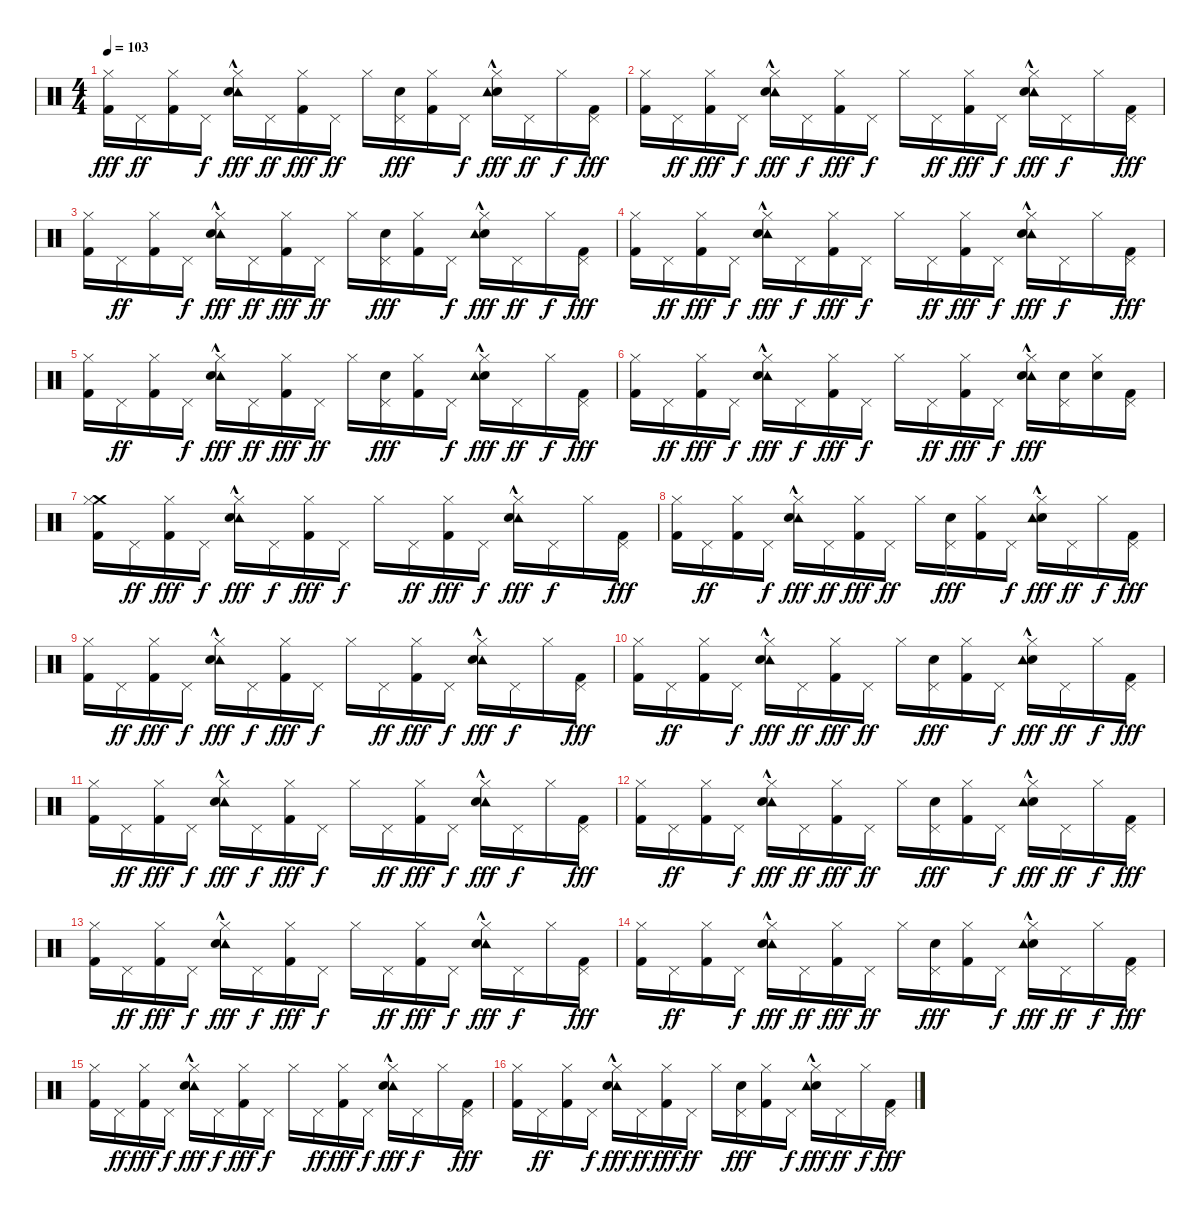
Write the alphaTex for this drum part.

\track "" {instrument percussion}
\staff {score}
\articulation defaults
\ts (4 4)
\tempo 103
\clef neutral
\ks c
("Kick (hit) 2" "Hi-Hat (closed)").16{dy fff} "Pedal Hi-Hat (hit)".16{dy ff} ("Kick (hit) 2" "Hi-Hat (closed)").16 "Pedal Hi-Hat (hit)".16{dy f} ("Tambourine (hit)"{hac} "Hi-Hat (closed)" "Electric Snare (hit)").16{dy fff} "Pedal Hi-Hat (hit)".16{dy ff} ("Hi-Hat (closed)" "Kick (hit) 2").16{dy fff} "Pedal Hi-Hat (hit)".16{dy ff} "Hi-Hat (closed)".16 ("Pedal Hi-Hat (hit)" "Electric Snare (hit)").16{dy fff} ("Kick (hit) 2" "Hi-Hat (closed)").16 "Pedal Hi-Hat (hit)".16{dy f} ("Electric Snare (hit)" "Hi-Hat (closed)" "Tambourine (hit)"{hac}).16{dy fff} "Pedal Hi-Hat (hit)".16{dy ff} "Hi-Hat (closed)".16{dy f} ("Pedal Hi-Hat (hit)" "Kick (hit) 2").16{dy fff} |
("Hi-Hat (closed)" "Kick (hit) 2").16 "Pedal Hi-Hat (hit)".16{dy ff} ("Hi-Hat (closed)" "Kick (hit) 2").16{dy fff} "Pedal Hi-Hat (hit)".16{dy f} ("Tambourine (hit)"{hac} "Hi-Hat (closed)" "Electric Snare (hit)").16{dy fff} "Pedal Hi-Hat (hit)".16{dy f} ("Kick (hit) 2" "Hi-Hat (closed)").16{dy fff} "Pedal Hi-Hat (hit)".16{dy f} "Hi-Hat (closed)".16 "Pedal Hi-Hat (hit)".16{dy ff} ("Kick (hit) 2" "Hi-Hat (closed)").16{dy fff} "Pedal Hi-Hat (hit)".16{dy f} ("Tambourine (hit)"{hac} "Electric Snare (hit)" "Hi-Hat (closed)").16{dy fff} "Pedal Hi-Hat (hit)".16{dy f} "Hi-Hat (closed)".16 ("Kick (hit) 2" "Pedal Hi-Hat (hit)").16{dy fff} |
("Kick (hit) 2" "Hi-Hat (closed)").16 "Pedal Hi-Hat (hit)".16{dy ff} ("Kick (hit) 2" "Hi-Hat (closed)").16 "Pedal Hi-Hat (hit)".16{dy f} ("Tambourine (hit)"{hac} "Hi-Hat (closed)" "Electric Snare (hit)").16{dy fff} "Pedal Hi-Hat (hit)".16{dy ff} ("Hi-Hat (closed)" "Kick (hit) 2").16{dy fff} "Pedal Hi-Hat (hit)".16{dy ff} "Hi-Hat (closed)".16 ("Pedal Hi-Hat (hit)" "Electric Snare (hit)").16{dy fff} ("Kick (hit) 2" "Hi-Hat (closed)").16 "Pedal Hi-Hat (hit)".16{dy f} ("Electric Snare (hit)" "Hi-Hat (closed)" "Tambourine (hit)"{hac}).16{dy fff} "Pedal Hi-Hat (hit)".16{dy ff} "Hi-Hat (closed)".16{dy f} ("Pedal Hi-Hat (hit)" "Kick (hit) 2").16{dy fff} |
("Hi-Hat (closed)" "Kick (hit) 2").16 "Pedal Hi-Hat (hit)".16{dy ff} ("Hi-Hat (closed)" "Kick (hit) 2").16{dy fff} "Pedal Hi-Hat (hit)".16{dy f} ("Tambourine (hit)"{hac} "Hi-Hat (closed)" "Electric Snare (hit)").16{dy fff} "Pedal Hi-Hat (hit)".16{dy f} ("Kick (hit) 2" "Hi-Hat (closed)").16{dy fff} "Pedal Hi-Hat (hit)".16{dy f} "Hi-Hat (closed)".16 "Pedal Hi-Hat (hit)".16{dy ff} ("Kick (hit) 2" "Hi-Hat (closed)").16{dy fff} "Pedal Hi-Hat (hit)".16{dy f} ("Tambourine (hit)"{hac} "Electric Snare (hit)" "Hi-Hat (closed)").16{dy fff} "Pedal Hi-Hat (hit)".16{dy f} "Hi-Hat (closed)".16 ("Kick (hit) 2" "Pedal Hi-Hat (hit)").16{dy fff} |
("Kick (hit) 2" "Hi-Hat (closed)").16 "Pedal Hi-Hat (hit)".16{dy ff} ("Kick (hit) 2" "Hi-Hat (closed)").16 "Pedal Hi-Hat (hit)".16{dy f} ("Tambourine (hit)"{hac} "Hi-Hat (closed)" "Electric Snare (hit)").16{dy fff} "Pedal Hi-Hat (hit)".16{dy ff} ("Hi-Hat (closed)" "Kick (hit) 2").16{dy fff} "Pedal Hi-Hat (hit)".16{dy ff} "Hi-Hat (closed)".16 ("Pedal Hi-Hat (hit)" "Electric Snare (hit)").16{dy fff} ("Kick (hit) 2" "Hi-Hat (closed)").16 "Pedal Hi-Hat (hit)".16{dy f} ("Electric Snare (hit)" "Hi-Hat (closed)" "Tambourine (hit)"{hac}).16{dy fff} "Pedal Hi-Hat (hit)".16{dy ff} "Hi-Hat (closed)".16{dy f} ("Pedal Hi-Hat (hit)" "Kick (hit) 2").16{dy fff} |
("Hi-Hat (closed)" "Kick (hit) 2").16 "Pedal Hi-Hat (hit)".16{dy ff} ("Hi-Hat (closed)" "Kick (hit) 2").16{dy fff} "Pedal Hi-Hat (hit)".16{dy f} ("Tambourine (hit)"{hac} "Hi-Hat (closed)" "Electric Snare (hit)").16{dy fff} "Pedal Hi-Hat (hit)".16{dy f} ("Kick (hit) 2" "Hi-Hat (closed)").16{dy fff} "Pedal Hi-Hat (hit)".16{dy f} "Hi-Hat (closed)".16 "Pedal Hi-Hat (hit)".16{dy ff} ("Kick (hit) 2" "Hi-Hat (closed)").16{dy fff} "Pedal Hi-Hat (hit)".16{dy f} ("Tambourine (hit)"{hac} "Electric Snare (hit)" "Hi-Hat (closed)").16{dy fff} ("Pedal Hi-Hat (hit)" "Electric Snare (hit)").16 ("Hi-Hat (closed)" "Electric Snare (hit)").16 ("Kick (hit) 2" "Pedal Hi-Hat (hit)").16 |
("Crash medium (hit)" "Hi-Hat (closed)" "Kick (hit) 2").16 "Pedal Hi-Hat (hit)".16{dy ff} ("Hi-Hat (closed)" "Kick (hit) 2").16{dy fff} "Pedal Hi-Hat (hit)".16{dy f} ("Tambourine (hit)"{hac} "Hi-Hat (closed)" "Electric Snare (hit)").16{dy fff} "Pedal Hi-Hat (hit)".16{dy f} ("Kick (hit) 2" "Hi-Hat (closed)").16{dy fff} "Pedal Hi-Hat (hit)".16{dy f} "Hi-Hat (closed)".16 "Pedal Hi-Hat (hit)".16{dy ff} ("Kick (hit) 2" "Hi-Hat (closed)").16{dy fff} "Pedal Hi-Hat (hit)".16{dy f} ("Tambourine (hit)"{hac} "Electric Snare (hit)" "Hi-Hat (closed)").16{dy fff} "Pedal Hi-Hat (hit)".16{dy f} "Hi-Hat (closed)".16 ("Kick (hit) 2" "Pedal Hi-Hat (hit)").16{dy fff} |
("Kick (hit) 2" "Hi-Hat (closed)").16 "Pedal Hi-Hat (hit)".16{dy ff} ("Kick (hit) 2" "Hi-Hat (closed)").16 "Pedal Hi-Hat (hit)".16{dy f} ("Tambourine (hit)"{hac} "Hi-Hat (closed)" "Electric Snare (hit)").16{dy fff} "Pedal Hi-Hat (hit)".16{dy ff} ("Hi-Hat (closed)" "Kick (hit) 2").16{dy fff} "Pedal Hi-Hat (hit)".16{dy ff} "Hi-Hat (closed)".16 ("Pedal Hi-Hat (hit)" "Electric Snare (hit)").16{dy fff} ("Kick (hit) 2" "Hi-Hat (closed)").16 "Pedal Hi-Hat (hit)".16{dy f} ("Electric Snare (hit)" "Hi-Hat (closed)" "Tambourine (hit)"{hac}).16{dy fff} "Pedal Hi-Hat (hit)".16{dy ff} "Hi-Hat (closed)".16{dy f} ("Pedal Hi-Hat (hit)" "Kick (hit) 2").16{dy fff} |
("Hi-Hat (closed)" "Kick (hit) 2").16 "Pedal Hi-Hat (hit)".16{dy ff} ("Hi-Hat (closed)" "Kick (hit) 2").16{dy fff} "Pedal Hi-Hat (hit)".16{dy f} ("Tambourine (hit)"{hac} "Hi-Hat (closed)" "Electric Snare (hit)").16{dy fff} "Pedal Hi-Hat (hit)".16{dy f} ("Kick (hit) 2" "Hi-Hat (closed)").16{dy fff} "Pedal Hi-Hat (hit)".16{dy f} "Hi-Hat (closed)".16 "Pedal Hi-Hat (hit)".16{dy ff} ("Kick (hit) 2" "Hi-Hat (closed)").16{dy fff} "Pedal Hi-Hat (hit)".16{dy f} ("Tambourine (hit)"{hac} "Electric Snare (hit)" "Hi-Hat (closed)").16{dy fff} "Pedal Hi-Hat (hit)".16{dy f} "Hi-Hat (closed)".16 ("Kick (hit) 2" "Pedal Hi-Hat (hit)").16{dy fff} |
("Kick (hit) 2" "Hi-Hat (closed)").16 "Pedal Hi-Hat (hit)".16{dy ff} ("Kick (hit) 2" "Hi-Hat (closed)").16 "Pedal Hi-Hat (hit)".16{dy f} ("Tambourine (hit)"{hac} "Hi-Hat (closed)" "Electric Snare (hit)").16{dy fff} "Pedal Hi-Hat (hit)".16{dy ff} ("Hi-Hat (closed)" "Kick (hit) 2").16{dy fff} "Pedal Hi-Hat (hit)".16{dy ff} "Hi-Hat (closed)".16 ("Pedal Hi-Hat (hit)" "Electric Snare (hit)").16{dy fff} ("Kick (hit) 2" "Hi-Hat (closed)").16 "Pedal Hi-Hat (hit)".16{dy f} ("Electric Snare (hit)" "Hi-Hat (closed)" "Tambourine (hit)"{hac}).16{dy fff} "Pedal Hi-Hat (hit)".16{dy ff} "Hi-Hat (closed)".16{dy f} ("Pedal Hi-Hat (hit)" "Kick (hit) 2").16{dy fff} |
("Hi-Hat (closed)" "Kick (hit) 2").16 "Pedal Hi-Hat (hit)".16{dy ff} ("Hi-Hat (closed)" "Kick (hit) 2").16{dy fff} "Pedal Hi-Hat (hit)".16{dy f} ("Tambourine (hit)"{hac} "Hi-Hat (closed)" "Electric Snare (hit)").16{dy fff} "Pedal Hi-Hat (hit)".16{dy f} ("Kick (hit) 2" "Hi-Hat (closed)").16{dy fff} "Pedal Hi-Hat (hit)".16{dy f} "Hi-Hat (closed)".16 "Pedal Hi-Hat (hit)".16{dy ff} ("Kick (hit) 2" "Hi-Hat (closed)").16{dy fff} "Pedal Hi-Hat (hit)".16{dy f} ("Tambourine (hit)"{hac} "Electric Snare (hit)" "Hi-Hat (closed)").16{dy fff} "Pedal Hi-Hat (hit)".16{dy f} "Hi-Hat (closed)".16 ("Kick (hit) 2" "Pedal Hi-Hat (hit)").16{dy fff} |
("Kick (hit) 2" "Hi-Hat (closed)").16 "Pedal Hi-Hat (hit)".16{dy ff} ("Kick (hit) 2" "Hi-Hat (closed)").16 "Pedal Hi-Hat (hit)".16{dy f} ("Tambourine (hit)"{hac} "Hi-Hat (closed)" "Electric Snare (hit)").16{dy fff} "Pedal Hi-Hat (hit)".16{dy ff} ("Hi-Hat (closed)" "Kick (hit) 2").16{dy fff} "Pedal Hi-Hat (hit)".16{dy ff} "Hi-Hat (closed)".16 ("Pedal Hi-Hat (hit)" "Electric Snare (hit)").16{dy fff} ("Kick (hit) 2" "Hi-Hat (closed)").16 "Pedal Hi-Hat (hit)".16{dy f} ("Electric Snare (hit)" "Hi-Hat (closed)" "Tambourine (hit)"{hac}).16{dy fff} "Pedal Hi-Hat (hit)".16{dy ff} "Hi-Hat (closed)".16{dy f} ("Pedal Hi-Hat (hit)" "Kick (hit) 2").16{dy fff} |
("Hi-Hat (closed)" "Kick (hit) 2").16 "Pedal Hi-Hat (hit)".16{dy ff} ("Hi-Hat (closed)" "Kick (hit) 2").16{dy fff} "Pedal Hi-Hat (hit)".16{dy f} ("Tambourine (hit)"{hac} "Hi-Hat (closed)" "Electric Snare (hit)").16{dy fff} "Pedal Hi-Hat (hit)".16{dy f} ("Kick (hit) 2" "Hi-Hat (closed)").16{dy fff} "Pedal Hi-Hat (hit)".16{dy f} "Hi-Hat (closed)".16 "Pedal Hi-Hat (hit)".16{dy ff} ("Kick (hit) 2" "Hi-Hat (closed)").16{dy fff} "Pedal Hi-Hat (hit)".16{dy f} ("Tambourine (hit)"{hac} "Electric Snare (hit)" "Hi-Hat (closed)").16{dy fff} "Pedal Hi-Hat (hit)".16{dy f} "Hi-Hat (closed)".16 ("Kick (hit) 2" "Pedal Hi-Hat (hit)").16{dy fff} |
("Kick (hit) 2" "Hi-Hat (closed)").16 "Pedal Hi-Hat (hit)".16{dy ff} ("Kick (hit) 2" "Hi-Hat (closed)").16 "Pedal Hi-Hat (hit)".16{dy f} ("Tambourine (hit)"{hac} "Hi-Hat (closed)" "Electric Snare (hit)").16{dy fff} "Pedal Hi-Hat (hit)".16{dy ff} ("Hi-Hat (closed)" "Kick (hit) 2").16{dy fff} "Pedal Hi-Hat (hit)".16{dy ff} "Hi-Hat (closed)".16 ("Pedal Hi-Hat (hit)" "Electric Snare (hit)").16{dy fff} ("Kick (hit) 2" "Hi-Hat (closed)").16 "Pedal Hi-Hat (hit)".16{dy f} ("Electric Snare (hit)" "Hi-Hat (closed)" "Tambourine (hit)"{hac}).16{dy fff} "Pedal Hi-Hat (hit)".16{dy ff} "Hi-Hat (closed)".16{dy f} ("Pedal Hi-Hat (hit)" "Kick (hit) 2").16{dy fff} |
("Hi-Hat (closed)" "Kick (hit) 2").16 "Pedal Hi-Hat (hit)".16{dy ff} ("Hi-Hat (closed)" "Kick (hit) 2").16{dy fff} "Pedal Hi-Hat (hit)".16{dy f} ("Tambourine (hit)"{hac} "Hi-Hat (closed)" "Electric Snare (hit)").16{dy fff} "Pedal Hi-Hat (hit)".16{dy f} ("Kick (hit) 2" "Hi-Hat (closed)").16{dy fff} "Pedal Hi-Hat (hit)".16{dy f} "Hi-Hat (closed)".16 "Pedal Hi-Hat (hit)".16{dy ff} ("Kick (hit) 2" "Hi-Hat (closed)").16{dy fff} "Pedal Hi-Hat (hit)".16{dy f} ("Tambourine (hit)"{hac} "Electric Snare (hit)" "Hi-Hat (closed)").16{dy fff} "Pedal Hi-Hat (hit)".16{dy f} "Hi-Hat (closed)".16 ("Kick (hit) 2" "Pedal Hi-Hat (hit)").16{dy fff} |
("Kick (hit) 2" "Hi-Hat (closed)").16 "Pedal Hi-Hat (hit)".16{dy ff} ("Kick (hit) 2" "Hi-Hat (closed)").16 "Pedal Hi-Hat (hit)".16{dy f} ("Tambourine (hit)"{hac} "Hi-Hat (closed)" "Electric Snare (hit)").16{dy fff} "Pedal Hi-Hat (hit)".16{dy ff} ("Hi-Hat (closed)" "Kick (hit) 2").16{dy fff} "Pedal Hi-Hat (hit)".16{dy ff} "Hi-Hat (closed)".16 ("Pedal Hi-Hat (hit)" "Electric Snare (hit)").16{dy fff} ("Kick (hit) 2" "Hi-Hat (closed)").16 "Pedal Hi-Hat (hit)".16{dy f} ("Electric Snare (hit)" "Hi-Hat (closed)" "Tambourine (hit)"{hac}).16{dy fff} "Pedal Hi-Hat (hit)".16{dy ff} "Hi-Hat (closed)".16{dy f} ("Pedal Hi-Hat (hit)" "Kick (hit) 2").16{dy fff}
